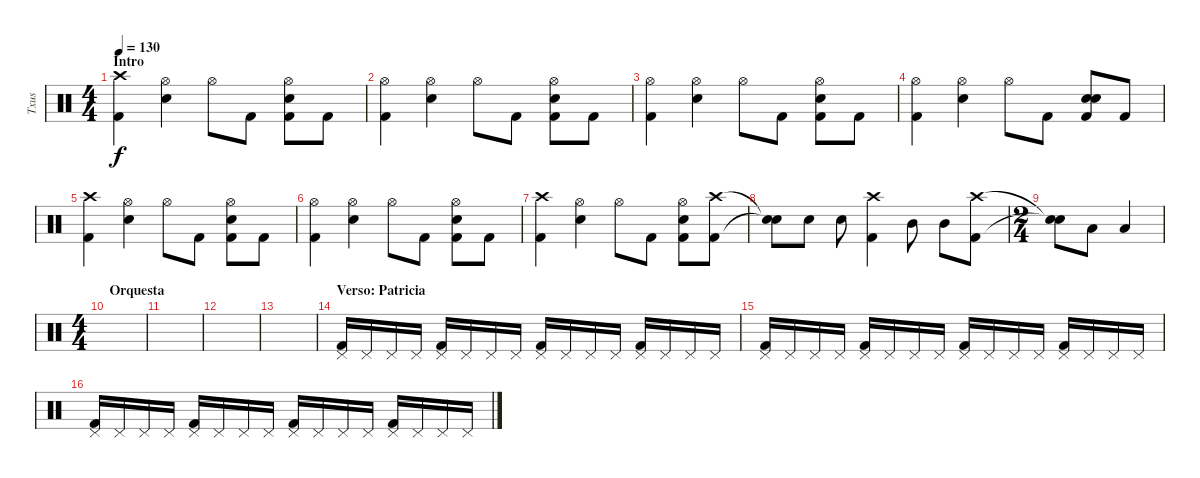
\track ("Txus" "Txus") {instrument percussion}
\staff {score}
\articulation defaults
\ts (4 4)
\section ("" "Intro")
\tempo 130
\clef neutral
\ks c
("Kick (hit) 2" "Crash high (hit)").4{dy f volume 16} ("Electric Snare (hit)" "Hi-Hat (open)").4 "Hi-Hat (open)".8 "Kick (hit) 2".8 ("Kick (hit) 2" "Electric Snare (hit)" "Hi-Hat (open)").8 "Kick (hit) 2".8 |
("Kick (hit) 2" "Hi-Hat (open)").4 ("Electric Snare (hit)" "Hi-Hat (open)").4 "Hi-Hat (open)".8 "Kick (hit) 2".8 ("Kick (hit) 2" "Electric Snare (hit)" "Hi-Hat (open)").8 "Kick (hit) 2".8 |
("Kick (hit) 2" "Hi-Hat (open)").4 ("Electric Snare (hit)" "Hi-Hat (open)").4 "Hi-Hat (open)".8 "Kick (hit) 2".8 ("Kick (hit) 2" "Electric Snare (hit)" "Hi-Hat (open)").8 "Kick (hit) 2".8 |
("Kick (hit) 2" "Hi-Hat (open)").4 ("Electric Snare (hit)" "Hi-Hat (open)").4 "Hi-Hat (open)".8 "Kick (hit) 2".8 ("Kick (hit) 2" "Electric Snare (hit)" "Snare (hit) 2").8 "Kick (hit) 2".8 |
("Kick (hit) 2" "Crash high (hit)").4 ("Electric Snare (hit)" "Hi-Hat (open)").4 "Hi-Hat (open)".8 "Kick (hit) 2".8 ("Kick (hit) 2" "Electric Snare (hit)" "Hi-Hat (open)").8 "Kick (hit) 2".8 |
("Kick (hit) 2" "Hi-Hat (open)").4 ("Electric Snare (hit)" "Hi-Hat (open)").4 "Hi-Hat (open)".8 "Kick (hit) 2".8 ("Kick (hit) 2" "Electric Snare (hit)" "Hi-Hat (open)").8 "Kick (hit) 2".8 |
("Kick (hit) 2" "Crash high (hit)").4 ("Electric Snare (hit)" "Hi-Hat (open)").4 "Hi-Hat (open)".8 "Kick (hit) 2".8 ("Kick (hit) 2" "Electric Snare (hit)" "Hi-Hat (open)").8 ("Kick (hit) 2" "Crash high (hit)").8 |
("Snare (hit)"{t} "Snare (hit)"{t}).8 "Electric Snare (hit)".8 "Electric Snare (hit)".8 ("Kick (hit) 2" "Crash high (hit)").4 "Mid Tom (hit)".8 "Mid Tom (hit)".8 ("Kick (hit) 2" "Crash high (hit)").8 |
\ts (2 4)
("Snare (hit)"{t} "Snare (hit)"{t}).8 "Low Tom (hit)".8 "Low Tom (hit)".4 |
\ts (4 4)
\section ("" "Orquesta")
|
|
|
|
\section ("" "Verso: Patricia")
("Kick (hit) 2" "Pedal Hi-Hat (hit)").16{volume 12} "Pedal Hi-Hat (hit)".16 "Pedal Hi-Hat (hit)".16 "Pedal Hi-Hat (hit)".16 ("Kick (hit) 2" "Pedal Hi-Hat (hit)").16 "Pedal Hi-Hat (hit)".16 "Pedal Hi-Hat (hit)".16 "Pedal Hi-Hat (hit)".16 ("Kick (hit) 2" "Pedal Hi-Hat (hit)").16 "Pedal Hi-Hat (hit)".16 "Pedal Hi-Hat (hit)".16 "Pedal Hi-Hat (hit)".16 ("Kick (hit) 2" "Pedal Hi-Hat (hit)").16 "Pedal Hi-Hat (hit)".16 "Pedal Hi-Hat (hit)".16 "Pedal Hi-Hat (hit)".16 |
("Kick (hit) 2" "Pedal Hi-Hat (hit)").16 "Pedal Hi-Hat (hit)".16 "Pedal Hi-Hat (hit)".16 "Pedal Hi-Hat (hit)".16 ("Kick (hit) 2" "Pedal Hi-Hat (hit)").16 "Pedal Hi-Hat (hit)".16 "Pedal Hi-Hat (hit)".16 "Pedal Hi-Hat (hit)".16 ("Kick (hit) 2" "Pedal Hi-Hat (hit)").16 "Pedal Hi-Hat (hit)".16 "Pedal Hi-Hat (hit)".16 "Pedal Hi-Hat (hit)".16 ("Kick (hit) 2" "Pedal Hi-Hat (hit)").16 "Pedal Hi-Hat (hit)".16 "Pedal Hi-Hat (hit)".16 "Pedal Hi-Hat (hit)".16 |
("Kick (hit) 2" "Pedal Hi-Hat (hit)").16 "Pedal Hi-Hat (hit)".16 "Pedal Hi-Hat (hit)".16 "Pedal Hi-Hat (hit)".16 ("Kick (hit) 2" "Pedal Hi-Hat (hit)").16 "Pedal Hi-Hat (hit)".16 "Pedal Hi-Hat (hit)".16 "Pedal Hi-Hat (hit)".16 ("Kick (hit) 2" "Pedal Hi-Hat (hit)").16 "Pedal Hi-Hat (hit)".16 "Pedal Hi-Hat (hit)".16 "Pedal Hi-Hat (hit)".16 ("Kick (hit) 2" "Pedal Hi-Hat (hit)").16 "Pedal Hi-Hat (hit)".16 "Pedal Hi-Hat (hit)".16 "Pedal Hi-Hat (hit)".16
